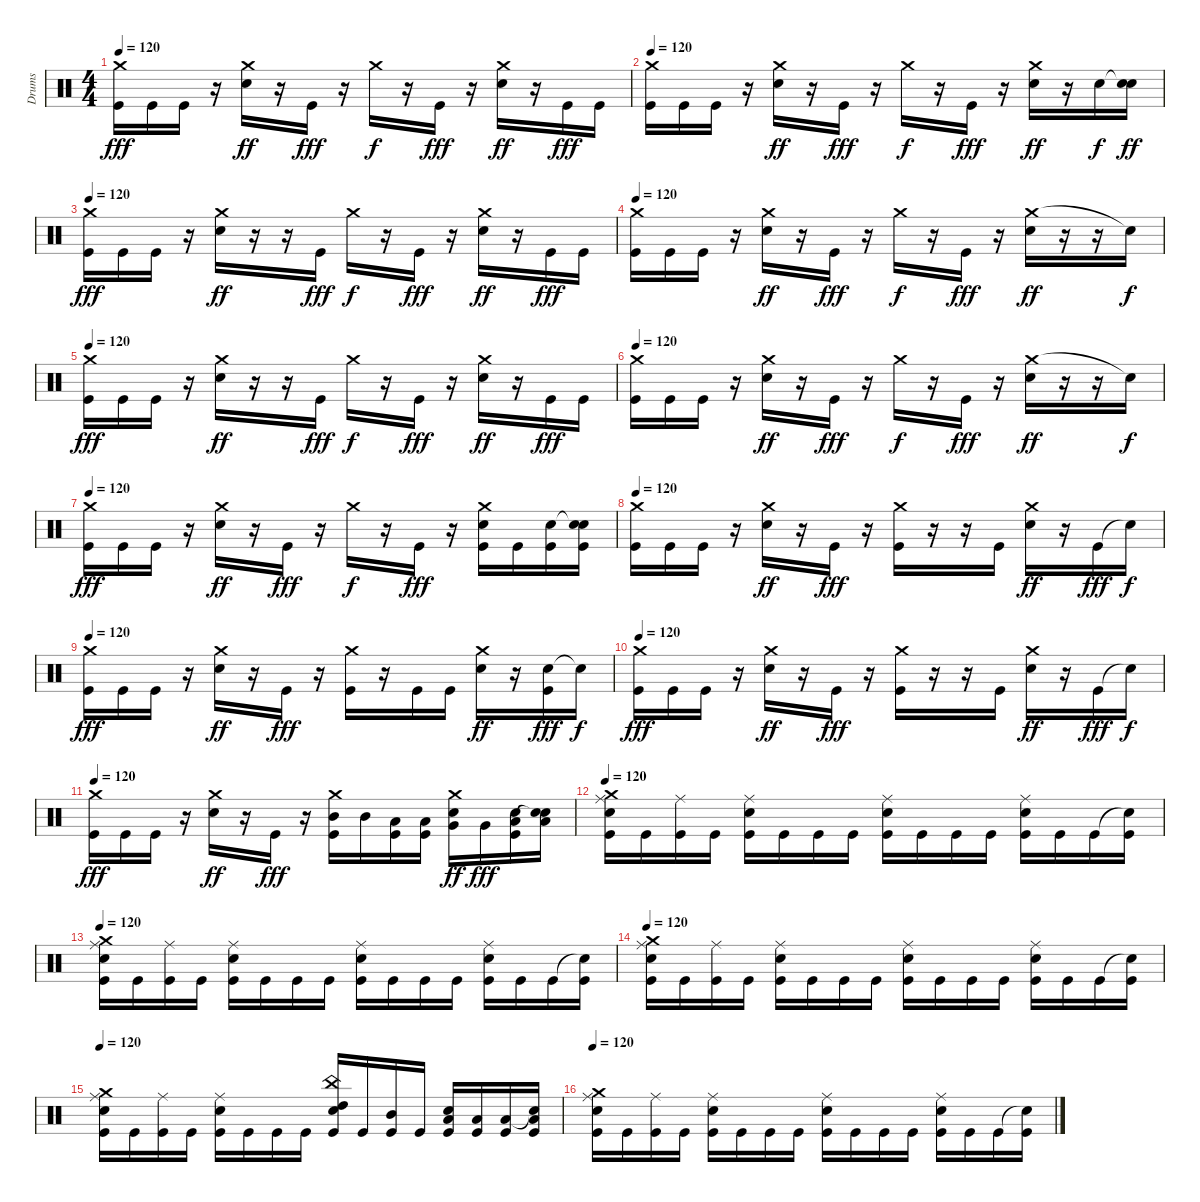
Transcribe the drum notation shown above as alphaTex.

\track ("Drums" "Drums") {instrument percussion}
\staff {score}
\articulation defaults
\ts (4 4)
\tempo 120
\clef neutral
\ks c
("Crash medium (hit)" "Kick (hit)").16{dy fff} "Kick (hit)".16 "Kick (hit)".16 r.16 ("Crash medium (hit)" "Electric Snare (hit)").16{dy ff} r.16 "Kick (hit)".16{dy fff} r.16 "Crash medium (hit)".16{dy f} r.16 "Kick (hit)".16{dy fff} r.16 ("Crash medium (hit)" "Electric Snare (hit)").16{dy ff} r.16 "Kick (hit)".16{dy fff} "Kick (hit)".16 |
\tempo 120
("Crash medium (hit)" "Kick (hit)").16 "Kick (hit)".16 "Kick (hit)".16 r.16 ("Crash medium (hit)" "Electric Snare (hit)").16{dy ff} r.16 "Kick (hit)".16{dy fff} r.16 "Crash medium (hit)".16{dy f} r.16 "Kick (hit)".16{dy fff} r.16 ("Crash medium (hit)" "Electric Snare (hit)").16{dy ff} r.16 "Electric Snare (hit)".16{dy f} ("Snare (hit)"{t} "Electric Snare (hit)").16{dy ff} |
\tempo 120
("Crash medium (hit)" "Kick (hit)").16{dy fff} "Kick (hit)".16 "Kick (hit)".16 r.16 ("Crash medium (hit)" "Electric Snare (hit)").16{dy ff} r.16 r.16 "Kick (hit)".16{dy fff} "Crash medium (hit)".16{dy f} r.16 "Kick (hit)".16{dy fff} r.16 ("Crash medium (hit)" "Electric Snare (hit)").16{dy ff} r.16 "Kick (hit)".16{dy fff} "Kick (hit)".16 |
\tempo 120
("Crash medium (hit)" "Kick (hit)").16 "Kick (hit)".16 "Kick (hit)".16 r.16 ("Crash medium (hit)" "Electric Snare (hit)").16{dy ff} r.16 "Kick (hit)".16{dy fff} r.16 "Crash medium (hit)".16{dy f} r.16 "Kick (hit)".16{dy fff} r.16 ("Crash medium (hit)" "Electric Snare (hit)").16{dy ff} r.16 r.16 "Snare (hit)"{t}.16{dy f} |
\tempo 120
("Crash medium (hit)" "Kick (hit)").16{dy fff} "Kick (hit)".16 "Kick (hit)".16 r.16 ("Crash medium (hit)" "Electric Snare (hit)").16{dy ff} r.16 r.16 "Kick (hit)".16{dy fff} "Crash medium (hit)".16{dy f} r.16 "Kick (hit)".16{dy fff} r.16 ("Crash medium (hit)" "Electric Snare (hit)").16{dy ff} r.16 "Kick (hit)".16{dy fff} "Kick (hit)".16 |
\tempo 120
("Crash medium (hit)" "Kick (hit)").16 "Kick (hit)".16 "Kick (hit)".16 r.16 ("Crash medium (hit)" "Electric Snare (hit)").16{dy ff} r.16 "Kick (hit)".16{dy fff} r.16 "Crash medium (hit)".16{dy f} r.16 "Kick (hit)".16{dy fff} r.16 ("Crash medium (hit)" "Electric Snare (hit)").16{dy ff} r.16 r.16 "Snare (hit)"{t}.16{dy f} |
\tempo 120
("Crash medium (hit)" "Kick (hit)").16{dy fff} "Kick (hit)".16 "Kick (hit)".16 r.16 ("Crash medium (hit)" "Electric Snare (hit)").16{dy ff} r.16 "Kick (hit)".16{dy fff} r.16 "Crash medium (hit)".16{dy f} r.16 "Kick (hit)".16{dy fff} r.16 ("Crash medium (hit)" "Electric Snare (hit)" "Kick (hit)").16 "Kick (hit)".16 ("Electric Snare (hit)" "Kick (hit)").16 ("Snare (hit)"{t} "Electric Snare (hit)" "Kick (hit)").16 |
\tempo 120
("Crash medium (hit)" "Kick (hit)").16 "Kick (hit)".16 "Kick (hit)".16 r.16 ("Crash medium (hit)" "Electric Snare (hit)").16{dy ff} r.16 "Kick (hit)".16{dy fff} r.16 ("Crash medium (hit)" "Kick (hit)").16 r.16 r.16 "Kick (hit)".16 ("Crash medium (hit)" "Electric Snare (hit)").16{dy ff} r.16 "Kick (hit)".16{dy fff} "Snare (hit)"{t}.16{dy f} |
\tempo 120
("Crash medium (hit)" "Kick (hit)").16{dy fff} "Kick (hit)".16 "Kick (hit)".16 r.16 ("Crash medium (hit)" "Electric Snare (hit)").16{dy ff} r.16 "Kick (hit)".16{dy fff} r.16 ("Crash medium (hit)" "Kick (hit)").16 r.16 "Kick (hit)".16 "Kick (hit)".16 ("Crash medium (hit)" "Electric Snare (hit)").16{dy ff} r.16 ("Electric Snare (hit)" "Kick (hit)").16{dy fff} "Snare (hit)"{t}.16{dy f} |
\tempo 120
("Crash medium (hit)" "Kick (hit)").16{dy fff} "Kick (hit)".16 "Kick (hit)".16 r.16 ("Crash medium (hit)" "Electric Snare (hit)").16{dy ff} r.16 "Kick (hit)".16{dy fff} r.16 ("Crash medium (hit)" "Kick (hit)").16 r.16 r.16 "Kick (hit)".16 ("Crash medium (hit)" "Electric Snare (hit)").16{dy ff} r.16 "Kick (hit)".16{dy fff} "Snare (hit)"{t}.16{dy f} |
\tempo 120
("Crash medium (hit)" "Kick (hit)").16{dy fff} "Kick (hit)".16 "Kick (hit)".16 r.16 ("Crash medium (hit)" "Electric Snare (hit)").16{dy ff} r.16 "Kick (hit)".16{dy fff} r.16 ("Crash medium (hit)" "Mid Tom (hit)" "Kick (hit)").16 "Mid Tom (hit)".16 ("Low Tom (hit)" "Kick (hit)").16 ("Low Tom (hit)" "Kick (hit)").16 ("Crash medium (hit)" "Very Low Tom (hit)" "Electric Snare (hit)").16{dy ff} "Very Low Tom (hit)".16{dy fff} ("Low Floor Tom (hit)" "Electric Snare (hit)" "Kick (hit)").16 ("Snare (hit)"{t} "Low Floor Tom (hit)" "Electric Snare (hit)").16 |
\tempo 120
("Ride (middle)" "Crash medium (hit)" "Snare (hit) 2" "Kick (hit)").16 "Kick (hit)".16 ("Ride (middle)" "Kick (hit)").16 "Kick (hit)".16 ("Ride (middle)" "Snare (hit) 2" "Kick (hit)").16 "Kick (hit)".16 "Kick (hit)".16 "Kick (hit)".16 ("Ride (middle)" "Snare (hit) 2" "Kick (hit)").16 "Kick (hit)".16 "Kick (hit)".16 "Kick (hit)".16 ("Ride (middle)" "Snare (hit) 2" "Kick (hit)").16 "Kick (hit)".16 "Kick (hit)".16 ("Snare (hit)"{t} "Kick (hit)").16 |
\tempo 120
("Ride (middle)" "Crash medium (hit)" "Snare (hit) 2" "Kick (hit)").16 "Kick (hit)".16 ("Ride (middle)" "Kick (hit)").16 "Kick (hit)".16 ("Ride (middle)" "Snare (hit) 2" "Kick (hit)").16 "Kick (hit)".16 "Kick (hit)".16 "Kick (hit)".16 ("Ride (middle)" "Snare (hit) 2" "Kick (hit)").16 "Kick (hit)".16 "Kick (hit)".16 "Kick (hit)".16 ("Ride (middle)" "Snare (hit) 2" "Kick (hit)").16 "Kick (hit)".16 "Kick (hit)".16 ("Snare (hit)"{t} "Kick (hit)").16 |
\tempo 120
("Ride (middle)" "Crash medium (hit)" "Snare (hit) 2" "Kick (hit)").16 "Kick (hit)".16 ("Ride (middle)" "Kick (hit)").16 "Kick (hit)".16 ("Ride (middle)" "Snare (hit) 2" "Kick (hit)").16 "Kick (hit)".16 "Kick (hit)".16 "Kick (hit)".16 ("Ride (middle)" "Snare (hit) 2" "Kick (hit)").16 "Kick (hit)".16 "Kick (hit)".16 "Kick (hit)".16 ("Ride (middle)" "Snare (hit) 2" "Kick (hit)").16 "Kick (hit)".16 "Kick (hit)".16 ("Snare (hit)"{t} "Kick (hit)").16 |
\tempo 120
("Ride (middle)" "Crash medium (hit)" "Snare (hit) 2" "Kick (hit)").16 "Kick (hit)".16 ("Ride (middle)" "Kick (hit)").16 "Kick (hit)".16 ("Ride (middle)" "Snare (hit) 2" "Kick (hit)").16 "Kick (hit)".16 "Kick (hit)".16 "Kick (hit)".16 ("China (hit)" "High Tom (hit)" "Snare (hit) 2" "Kick (hit)").16 "Kick (hit)".16 ("Mid Tom (hit)" "Kick (hit)").16 "Kick (hit)".16 ("Low Tom (hit)" "Snare (hit) 2" "Kick (hit)").16 ("Low Tom (hit)" "Kick (hit)").16 ("Low Floor Tom (hit)" "Kick (hit)").16 ("Snare (hit)"{t} "Low Floor Tom (hit)" "Kick (hit)").16 |
\tempo 120
("Ride (middle)" "Crash medium (hit)" "Snare (hit) 2" "Kick (hit)").16 "Kick (hit)".16 ("Ride (middle)" "Kick (hit)").16 "Kick (hit)".16 ("Ride (middle)" "Snare (hit) 2" "Kick (hit)").16 "Kick (hit)".16 "Kick (hit)".16 "Kick (hit)".16 ("Ride (middle)" "Snare (hit) 2" "Kick (hit)").16 "Kick (hit)".16 "Kick (hit)".16 "Kick (hit)".16 ("Ride (middle)" "Snare (hit) 2" "Kick (hit)").16 "Kick (hit)".16 "Kick (hit)".16 ("Snare (hit)"{t} "Kick (hit)").16
